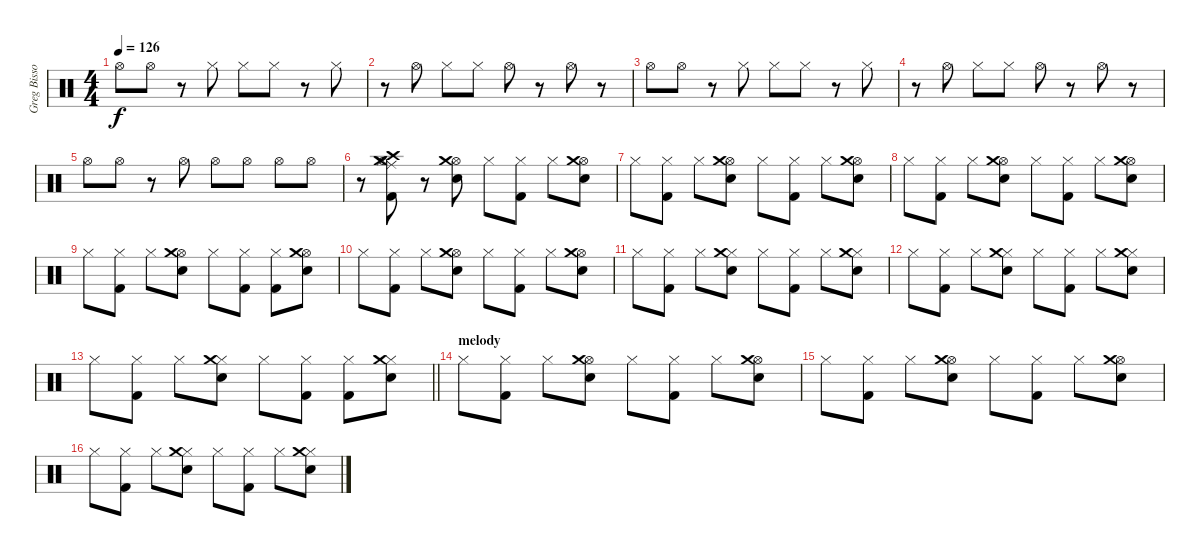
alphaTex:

\track ("Greg Bissonette - drums" "Greg Bisso") {instrument percussion}
\staff {score}
\articulation defaults
\ts (4 4)
\tempo 126
\clef neutral
\ks c "Hi-Hat (open)".8{dy f} "Hi-Hat (open)".8
r.8 "Hi-Hat (closed)".8 "Hi-Hat (closed)".8 "Hi-Hat (closed)".8 r.8 "Hi-Hat (closed)".8 |
r.8 "Hi-Hat (open)".8 "Hi-Hat (closed)".8 "Hi-Hat (closed)".8 "Hi-Hat (open)".8 r.8 "Hi-Hat (open)".8 r.8 |
"Hi-Hat (open)".8 "Hi-Hat (open)".8 r.8 "Hi-Hat (closed)".8 "Hi-Hat (closed)".8 "Hi-Hat (closed)".8 r.8 "Hi-Hat (closed)".8 |
r.8 "Hi-Hat (open)".8 "Hi-Hat (closed)".8 "Hi-Hat (closed)".8 "Hi-Hat (open)".8 r.8 "Hi-Hat (open)".8 r.8 |
"Hi-Hat (open)".8 "Hi-Hat (open)".8 r.8 "Hi-Hat (open)".8 "Hi-Hat (open)".8 "Hi-Hat (open)".8 "Hi-Hat (open)".8 "Hi-Hat (open)".8 |
r.8 ("Hi-Hat (closed)" "Hi-Hat (open)" "Crash high (hit)" "Ride (middle)" "Crash medium (hit)" "Kick (hit) 2").8 r.8 ("Hi-Hat (open)" "Snare (hit) 2" "Crash medium (hit)").8 "Hi-Hat (closed)".8 ("Hi-Hat (closed)" "Kick (hit) 2").8 "Hi-Hat (closed)".8 ("Hi-Hat (open)" "Snare (hit) 2" "Crash medium (hit)").8 |
"Hi-Hat (closed)".8 ("Hi-Hat (closed)" "Kick (hit) 2").8 "Hi-Hat (closed)".8 ("Hi-Hat (open)" "Snare (hit) 2" "Crash medium (hit)").8 "Hi-Hat (closed)".8 ("Hi-Hat (closed)" "Kick (hit) 2").8 "Hi-Hat (closed)".8 ("Hi-Hat (open)" "Snare (hit) 2" "Crash medium (hit)").8 |
"Hi-Hat (closed)".8 ("Hi-Hat (closed)" "Kick (hit) 2").8 "Hi-Hat (closed)".8 ("Hi-Hat (open)" "Snare (hit) 2" "Crash medium (hit)").8 "Hi-Hat (closed)".8 ("Hi-Hat (closed)" "Kick (hit) 2").8 "Hi-Hat (closed)".8 ("Hi-Hat (open)" "Snare (hit) 2" "Crash medium (hit)").8 |
"Hi-Hat (closed)".8 ("Hi-Hat (closed)" "Kick (hit) 2").8 "Hi-Hat (closed)".8 ("Hi-Hat (open)" "Snare (hit) 2" "Crash medium (hit)").8 "Hi-Hat (closed)".8 ("Hi-Hat (closed)" "Kick (hit) 2").8 ("Hi-Hat (closed)" "Kick (hit) 2").8 ("Hi-Hat (open)" "Snare (hit) 2" "Crash medium (hit)").8 |
"Hi-Hat (closed)".8 ("Hi-Hat (closed)" "Kick (hit) 2").8 "Hi-Hat (closed)".8 ("Hi-Hat (open)" "Snare (hit) 2" "Crash medium (hit)").8 "Hi-Hat (closed)".8 ("Hi-Hat (closed)" "Kick (hit) 2").8 "Hi-Hat (closed)".8 ("Hi-Hat (open)" "Snare (hit) 2" "Crash medium (hit)").8 |
"Hi-Hat (closed)".8 ("Hi-Hat (closed)" "Kick (hit) 2").8 "Hi-Hat (closed)".8 ("Hi-Hat (closed)" "Snare (hit) 2" "Crash medium (hit)").8 "Hi-Hat (closed)".8 ("Hi-Hat (closed)" "Kick (hit) 2").8 "Hi-Hat (closed)".8 ("Hi-Hat (closed)" "Snare (hit) 2" "Crash medium (hit)").8 |
"Hi-Hat (closed)".8 ("Hi-Hat (closed)" "Kick (hit) 2").8 "Hi-Hat (closed)".8 ("Hi-Hat (closed)" "Snare (hit) 2" "Crash medium (hit)").8 "Hi-Hat (closed)".8 ("Hi-Hat (closed)" "Kick (hit) 2").8 "Hi-Hat (closed)".8 ("Hi-Hat (closed)" "Snare (hit) 2" "Crash medium (hit)").8 |
\barLineRight lightlight "Hi-Hat (closed)".8
("Hi-Hat (closed)" "Kick (hit) 2").8 "Hi-Hat (closed)".8 ("Hi-Hat (closed)" "Snare (hit) 2" "Crash medium (hit)").8 "Hi-Hat (closed)".8 ("Hi-Hat (closed)" "Kick (hit) 2").8 ("Hi-Hat (closed)" "Kick (hit) 2").8 ("Hi-Hat (closed)" "Snare (hit) 2" "Crash medium (hit)").8 |
\section ("" "melody")
"Hi-Hat (closed)".8 ("Hi-Hat (closed)" "Kick (hit) 2").8 "Hi-Hat (closed)".8 ("Hi-Hat (open)" "Snare (hit) 2" "Crash medium (hit)").8 "Hi-Hat (closed)".8 ("Hi-Hat (closed)" "Kick (hit) 2").8 "Hi-Hat (closed)".8 ("Hi-Hat (open)" "Snare (hit) 2" "Crash medium (hit)").8 |
"Hi-Hat (closed)".8 ("Hi-Hat (closed)" "Kick (hit) 2").8 "Hi-Hat (closed)".8 ("Hi-Hat (open)" "Snare (hit) 2" "Crash medium (hit)").8 "Hi-Hat (closed)".8 ("Hi-Hat (closed)" "Kick (hit) 2").8 "Hi-Hat (closed)".8 ("Hi-Hat (open)" "Snare (hit) 2" "Crash medium (hit)").8 |
"Hi-Hat (closed)".8 ("Hi-Hat (closed)" "Kick (hit) 2").8 "Hi-Hat (closed)".8 ("Hi-Hat (closed)" "Snare (hit) 2" "Crash medium (hit)").8 "Hi-Hat (closed)".8 ("Hi-Hat (closed)" "Kick (hit) 2").8 "Hi-Hat (closed)".8 ("Hi-Hat (closed)" "Snare (hit) 2" "Crash medium (hit)").8
